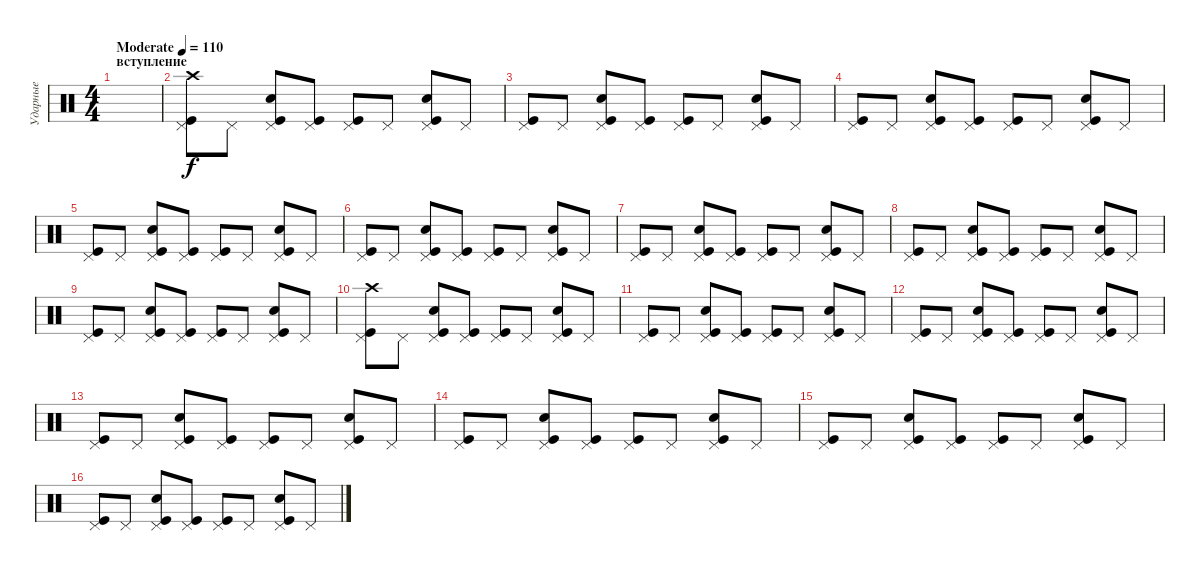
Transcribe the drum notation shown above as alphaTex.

\track ("Ударные" "Ударные") {instrument percussion}
\staff {score}
\articulation defaults
\ts (4 4)
\section ("" "вступление")
\tempo (110 "Moderate")
\clef neutral
\ks c
|
("Pedal Hi-Hat (hit)" "Kick (hit)" "Crash high (hit)").8 "Pedal Hi-Hat (hit)".8 ("Pedal Hi-Hat (hit)" "Kick (hit)" "Snare (hit) 2").8 ("Pedal Hi-Hat (hit)" "Kick (hit)").8 ("Pedal Hi-Hat (hit)" "Kick (hit)").8 "Pedal Hi-Hat (hit)".8 ("Pedal Hi-Hat (hit)" "Kick (hit)" "Snare (hit) 2").8 "Pedal Hi-Hat (hit)".8 |
("Pedal Hi-Hat (hit)" "Kick (hit)").8 "Pedal Hi-Hat (hit)".8 ("Pedal Hi-Hat (hit)" "Kick (hit)" "Snare (hit) 2").8 ("Pedal Hi-Hat (hit)" "Kick (hit)").8 ("Pedal Hi-Hat (hit)" "Kick (hit)").8 "Pedal Hi-Hat (hit)".8 ("Pedal Hi-Hat (hit)" "Kick (hit)" "Snare (hit) 2").8 "Pedal Hi-Hat (hit)".8 |
("Pedal Hi-Hat (hit)" "Kick (hit)").8 "Pedal Hi-Hat (hit)".8 ("Pedal Hi-Hat (hit)" "Kick (hit)" "Snare (hit) 2").8 ("Pedal Hi-Hat (hit)" "Kick (hit)").8 ("Pedal Hi-Hat (hit)" "Kick (hit)").8 "Pedal Hi-Hat (hit)".8 ("Pedal Hi-Hat (hit)" "Kick (hit)" "Snare (hit) 2").8 "Pedal Hi-Hat (hit)".8 |
("Pedal Hi-Hat (hit)" "Kick (hit)").8 "Pedal Hi-Hat (hit)".8 ("Pedal Hi-Hat (hit)" "Kick (hit)" "Snare (hit) 2").8 ("Pedal Hi-Hat (hit)" "Kick (hit)").8 ("Pedal Hi-Hat (hit)" "Kick (hit)").8 "Pedal Hi-Hat (hit)".8 ("Pedal Hi-Hat (hit)" "Kick (hit)" "Snare (hit) 2").8 "Pedal Hi-Hat (hit)".8 |
("Pedal Hi-Hat (hit)" "Kick (hit)").8 "Pedal Hi-Hat (hit)".8 ("Pedal Hi-Hat (hit)" "Kick (hit)" "Snare (hit) 2").8 ("Pedal Hi-Hat (hit)" "Kick (hit)").8 ("Pedal Hi-Hat (hit)" "Kick (hit)").8 "Pedal Hi-Hat (hit)".8 ("Pedal Hi-Hat (hit)" "Kick (hit)" "Snare (hit) 2").8 "Pedal Hi-Hat (hit)".8 |
("Pedal Hi-Hat (hit)" "Kick (hit)").8 "Pedal Hi-Hat (hit)".8 ("Pedal Hi-Hat (hit)" "Kick (hit)" "Snare (hit) 2").8 ("Pedal Hi-Hat (hit)" "Kick (hit)").8 ("Pedal Hi-Hat (hit)" "Kick (hit)").8 "Pedal Hi-Hat (hit)".8 ("Pedal Hi-Hat (hit)" "Kick (hit)" "Snare (hit) 2").8 "Pedal Hi-Hat (hit)".8 |
("Pedal Hi-Hat (hit)" "Kick (hit)").8 "Pedal Hi-Hat (hit)".8 ("Pedal Hi-Hat (hit)" "Kick (hit)" "Snare (hit) 2").8 ("Pedal Hi-Hat (hit)" "Kick (hit)").8 ("Pedal Hi-Hat (hit)" "Kick (hit)").8 "Pedal Hi-Hat (hit)".8 ("Pedal Hi-Hat (hit)" "Kick (hit)" "Snare (hit) 2").8 "Pedal Hi-Hat (hit)".8 |
("Pedal Hi-Hat (hit)" "Kick (hit)").8 "Pedal Hi-Hat (hit)".8 ("Pedal Hi-Hat (hit)" "Kick (hit)" "Snare (hit) 2").8 ("Pedal Hi-Hat (hit)" "Kick (hit)").8 ("Pedal Hi-Hat (hit)" "Kick (hit)").8 "Pedal Hi-Hat (hit)".8 ("Pedal Hi-Hat (hit)" "Kick (hit)" "Snare (hit) 2").8 "Pedal Hi-Hat (hit)".8 |
("Pedal Hi-Hat (hit)" "Kick (hit)" "Crash high (hit)").8 "Pedal Hi-Hat (hit)".8 ("Pedal Hi-Hat (hit)" "Kick (hit)" "Snare (hit) 2").8 ("Pedal Hi-Hat (hit)" "Kick (hit)").8 ("Pedal Hi-Hat (hit)" "Kick (hit)").8 "Pedal Hi-Hat (hit)".8 ("Pedal Hi-Hat (hit)" "Kick (hit)" "Snare (hit) 2").8 "Pedal Hi-Hat (hit)".8 |
("Pedal Hi-Hat (hit)" "Kick (hit)").8 "Pedal Hi-Hat (hit)".8 ("Pedal Hi-Hat (hit)" "Kick (hit)" "Snare (hit) 2").8 ("Pedal Hi-Hat (hit)" "Kick (hit)").8 ("Pedal Hi-Hat (hit)" "Kick (hit)").8 "Pedal Hi-Hat (hit)".8 ("Pedal Hi-Hat (hit)" "Kick (hit)" "Snare (hit) 2").8 "Pedal Hi-Hat (hit)".8 |
("Pedal Hi-Hat (hit)" "Kick (hit)").8 "Pedal Hi-Hat (hit)".8 ("Pedal Hi-Hat (hit)" "Kick (hit)" "Snare (hit) 2").8 ("Pedal Hi-Hat (hit)" "Kick (hit)").8 ("Pedal Hi-Hat (hit)" "Kick (hit)").8 "Pedal Hi-Hat (hit)".8 ("Pedal Hi-Hat (hit)" "Kick (hit)" "Snare (hit) 2").8 "Pedal Hi-Hat (hit)".8 |
("Pedal Hi-Hat (hit)" "Kick (hit)").8 "Pedal Hi-Hat (hit)".8 ("Pedal Hi-Hat (hit)" "Kick (hit)" "Snare (hit) 2").8 ("Pedal Hi-Hat (hit)" "Kick (hit)").8 ("Pedal Hi-Hat (hit)" "Kick (hit)").8 "Pedal Hi-Hat (hit)".8 ("Pedal Hi-Hat (hit)" "Kick (hit)" "Snare (hit) 2").8 "Pedal Hi-Hat (hit)".8 |
("Pedal Hi-Hat (hit)" "Kick (hit)").8 "Pedal Hi-Hat (hit)".8 ("Pedal Hi-Hat (hit)" "Kick (hit)" "Snare (hit) 2").8 ("Pedal Hi-Hat (hit)" "Kick (hit)").8 ("Pedal Hi-Hat (hit)" "Kick (hit)").8 "Pedal Hi-Hat (hit)".8 ("Pedal Hi-Hat (hit)" "Kick (hit)" "Snare (hit) 2").8 "Pedal Hi-Hat (hit)".8 |
("Pedal Hi-Hat (hit)" "Kick (hit)").8 "Pedal Hi-Hat (hit)".8 ("Pedal Hi-Hat (hit)" "Kick (hit)" "Snare (hit) 2").8 ("Pedal Hi-Hat (hit)" "Kick (hit)").8 ("Pedal Hi-Hat (hit)" "Kick (hit)").8 "Pedal Hi-Hat (hit)".8 ("Pedal Hi-Hat (hit)" "Kick (hit)" "Snare (hit) 2").8 "Pedal Hi-Hat (hit)".8 |
("Pedal Hi-Hat (hit)" "Kick (hit)").8 "Pedal Hi-Hat (hit)".8 ("Pedal Hi-Hat (hit)" "Kick (hit)" "Snare (hit) 2").8 ("Pedal Hi-Hat (hit)" "Kick (hit)").8 ("Pedal Hi-Hat (hit)" "Kick (hit)").8 "Pedal Hi-Hat (hit)".8 ("Pedal Hi-Hat (hit)" "Kick (hit)" "Snare (hit) 2").8 "Pedal Hi-Hat (hit)".8
